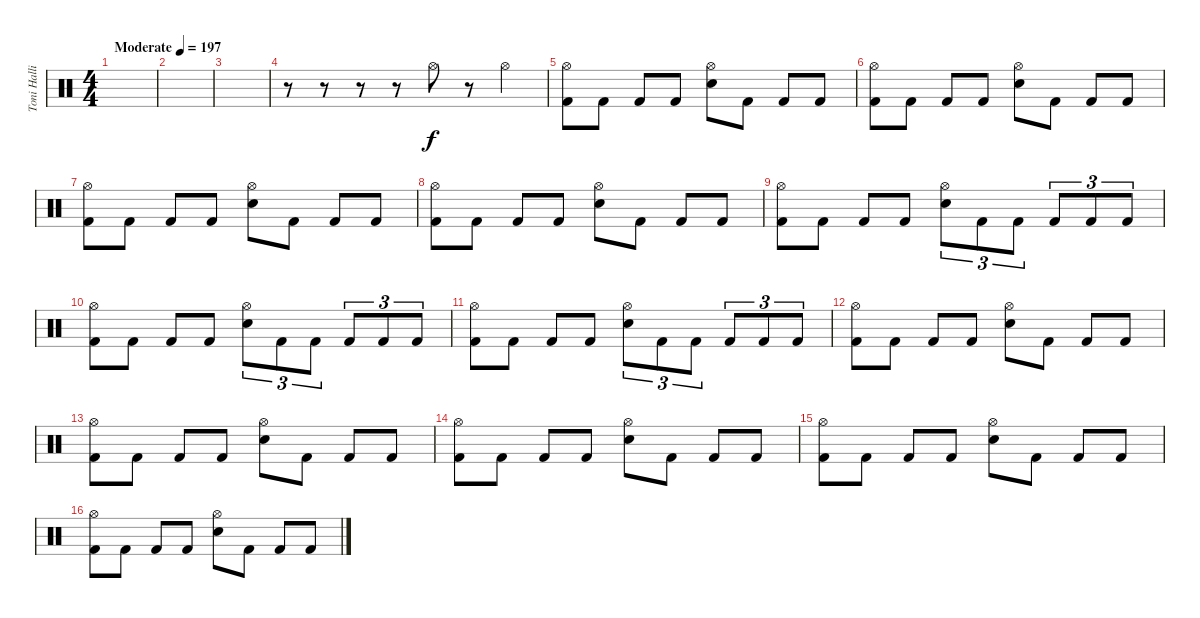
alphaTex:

\track ("Toni Hallio" "Toni Halli") {instrument percussion}
\staff {score}
\articulation defaults
\ts (4 4)
\tempo (197 "Moderate")
\clef neutral
\ks c
|
|
|
r.8 r.8 r.8 r.8 "Hi-Hat (open)".8 r.8 "Hi-Hat (open)".4 |
("Hi-Hat (open)" "Kick (hit) 2").8 "Kick (hit) 2".8 "Kick (hit) 2".8 "Kick (hit) 2".8 ("Hi-Hat (open)" "Snare (hit) 2").8 "Kick (hit) 2".8 "Kick (hit) 2".8 "Kick (hit) 2".8 |
("Hi-Hat (open)" "Kick (hit) 2").8 "Kick (hit) 2".8 "Kick (hit) 2".8 "Kick (hit) 2".8 ("Hi-Hat (open)" "Snare (hit) 2").8 "Kick (hit) 2".8 "Kick (hit) 2".8 "Kick (hit) 2".8 |
("Hi-Hat (open)" "Kick (hit) 2").8 "Kick (hit) 2".8 "Kick (hit) 2".8 "Kick (hit) 2".8 ("Hi-Hat (open)" "Snare (hit) 2").8 "Kick (hit) 2".8 "Kick (hit) 2".8 "Kick (hit) 2".8 |
("Hi-Hat (open)" "Kick (hit) 2").8 "Kick (hit) 2".8 "Kick (hit) 2".8 "Kick (hit) 2".8 ("Hi-Hat (open)" "Snare (hit) 2").8 "Kick (hit) 2".8 "Kick (hit) 2".8 "Kick (hit) 2".8 |
("Hi-Hat (open)" "Kick (hit) 2").8 "Kick (hit) 2".8 "Kick (hit) 2".8 "Kick (hit) 2".8 ("Hi-Hat (open)" "Snare (hit) 2").8{tu (3 2)} "Kick (hit) 2".8{tu (3 2)} "Kick (hit) 2".8{tu (3 2)} "Kick (hit) 2".8{tu (3 2)} "Kick (hit) 2".8{tu (3 2)} "Kick (hit) 2".8{tu (3 2)} |
("Hi-Hat (open)" "Kick (hit) 2").8 "Kick (hit) 2".8 "Kick (hit) 2".8 "Kick (hit) 2".8 ("Hi-Hat (open)" "Snare (hit) 2").8{tu (3 2)} "Kick (hit) 2".8{tu (3 2)} "Kick (hit) 2".8{tu (3 2)} "Kick (hit) 2".8{tu (3 2)} "Kick (hit) 2".8{tu (3 2)} "Kick (hit) 2".8{tu (3 2)} |
("Hi-Hat (open)" "Kick (hit) 2").8 "Kick (hit) 2".8 "Kick (hit) 2".8 "Kick (hit) 2".8 ("Hi-Hat (open)" "Snare (hit) 2").8{tu (3 2)} "Kick (hit) 2".8{tu (3 2)} "Kick (hit) 2".8{tu (3 2)} "Kick (hit) 2".8{tu (3 2)} "Kick (hit) 2".8{tu (3 2)} "Kick (hit) 2".8{tu (3 2)} |
("Hi-Hat (open)" "Kick (hit) 2").8 "Kick (hit) 2".8 "Kick (hit) 2".8 "Kick (hit) 2".8 ("Hi-Hat (open)" "Snare (hit) 2").8 "Kick (hit) 2".8 "Kick (hit) 2".8 "Kick (hit) 2".8 |
("Hi-Hat (open)" "Kick (hit) 2").8 "Kick (hit) 2".8 "Kick (hit) 2".8 "Kick (hit) 2".8 ("Hi-Hat (open)" "Snare (hit) 2").8 "Kick (hit) 2".8 "Kick (hit) 2".8 "Kick (hit) 2".8 |
("Hi-Hat (open)" "Kick (hit) 2").8 "Kick (hit) 2".8 "Kick (hit) 2".8 "Kick (hit) 2".8 ("Hi-Hat (open)" "Snare (hit) 2").8 "Kick (hit) 2".8 "Kick (hit) 2".8 "Kick (hit) 2".8 |
("Hi-Hat (open)" "Kick (hit) 2").8 "Kick (hit) 2".8 "Kick (hit) 2".8 "Kick (hit) 2".8 ("Hi-Hat (open)" "Snare (hit) 2").8 "Kick (hit) 2".8 "Kick (hit) 2".8 "Kick (hit) 2".8 |
("Hi-Hat (open)" "Kick (hit) 2").8 "Kick (hit) 2".8 "Kick (hit) 2".8 "Kick (hit) 2".8 ("Hi-Hat (open)" "Snare (hit) 2").8 "Kick (hit) 2".8 "Kick (hit) 2".8 "Kick (hit) 2".8
